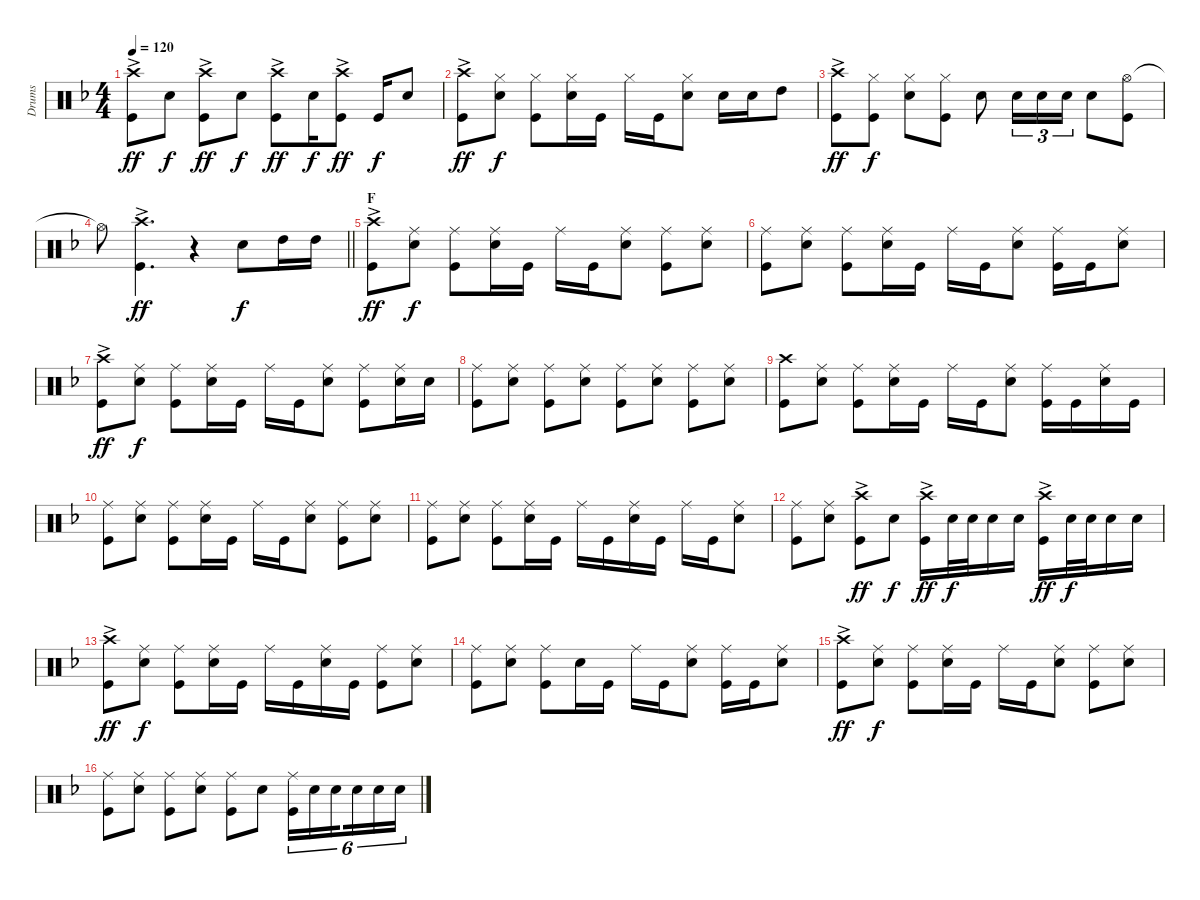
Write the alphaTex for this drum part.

\track ("Drums" "Drums") {instrument percussion}
\staff {score}
\articulation defaults
\ts (4 4)
\tempo 120
\clef neutral
\ks f
("Crash high (hit)"{ac} "Kick (hit)").8{dy ff} "Snare (hit) 2".8{dy f} ("Crash high (hit)"{ac} "Kick (hit)").8{dy ff} "Snare (hit) 2".8{dy f} ("Crash high (hit)"{ac} "Kick (hit)").8{dy ff} "Snare (hit) 2".16{dy f} ("Crash high (hit)"{ac} "Kick (hit)").8{dy ff} "Kick (hit)".16{dy f} "Snare (hit) 2".8 |
("Crash high (hit)"{ac} "Kick (hit)").8{dy ff} ("Hi-Hat (closed)" "Snare (hit) 2").8{dy f} ("Hi-Hat (closed)" "Kick (hit)").8 ("Hi-Hat (closed)" "Snare (hit) 2").16 "Kick (hit)".16 "Hi-Hat (closed)".16 "Kick (hit)".16 ("Hi-Hat (closed)" "Snare (hit) 2").8 "Snare (hit) 2".16 "Snare (hit) 2".16 "High Tom (hit)".8 |
("Crash high (hit)"{ac} "Kick (hit)").8{dy ff} ("Hi-Hat (closed)" "Kick (hit)").8{dy f} ("Hi-Hat (closed)" "Snare (hit) 2").8 ("Hi-Hat (closed)" "Kick (hit)").8 "Snare (hit) 2".8 "Snare (hit) 2".16{tu (3 2)} "Snare (hit) 2".16{tu (3 2)} "Snare (hit) 2".16{tu (3 2)} "Snare (hit) 2".8 ("Hi-Hat (open)" "Kick (hit)").8 |
\barLineRight lightlight "Hi-Hat (open)"{t}.8
("Crash high (hit)"{ac} "Kick (hit)").4{d dy ff} r.4 "Snare (hit) 2".8{dy f} "High Tom (hit)".16 "High Tom (hit)".16 |
\section ("" "F")
("Crash high (hit)"{ac} "Kick (hit)").8{dy ff} ("Ride (middle)" "Snare (hit) 2").8{dy f} ("Ride (middle)" "Kick (hit)").8 ("Ride (middle)" "Snare (hit) 2").16 "Kick (hit)".16 "Ride (middle)".16 "Kick (hit)".16 ("Ride (middle)" "Snare (hit) 2").8 ("Ride (middle)" "Kick (hit)").8 ("Ride (middle)" "Snare (hit) 2").8 |
("Ride (middle)" "Kick (hit)").8 ("Ride (middle)" "Snare (hit) 2").8 ("Ride (middle)" "Kick (hit)").8 ("Ride (middle)" "Snare (hit) 2").16 "Kick (hit)".16 "Ride (middle)".16 "Kick (hit)".16 ("Ride (middle)" "Snare (hit) 2").8 ("Ride (middle)" "Kick (hit)").16 "Kick (hit)".16 ("Ride (middle)" "Snare (hit) 2").8 |
("Crash high (hit)"{ac} "Kick (hit)").8{dy ff} ("Ride (middle)" "Snare (hit) 2").8{dy f} ("Ride (middle)" "Kick (hit)").8 ("Ride (middle)" "Snare (hit) 2").16 "Kick (hit)".16 "Ride (middle)".16 "Kick (hit)".16 ("Ride (middle)" "Snare (hit) 2").8 ("Ride (middle)" "Kick (hit)").8 ("Ride (middle)" "Snare (hit) 2").16 "Snare (hit) 2".16 |
("Ride (middle)" "Kick (hit)").8 ("Ride (middle)" "Snare (hit) 2").8 ("Ride (middle)" "Kick (hit)").8 ("Ride (middle)" "Snare (hit) 2").8 ("Ride (middle)" "Kick (hit)").8 ("Ride (middle)" "Snare (hit) 2").8 ("Ride (middle)" "Kick (hit)").8 ("Ride (middle)" "Snare (hit) 2").8 |
("Crash high (hit)" "Kick (hit)").8 ("Ride (middle)" "Snare (hit) 2").8 ("Ride (middle)" "Kick (hit)").8 ("Ride (middle)" "Snare (hit) 2").16 "Kick (hit)".16 "Ride (middle)".16 "Kick (hit)".16 ("Ride (middle)" "Snare (hit) 2").8 ("Ride (middle)" "Kick (hit)").16 "Kick (hit)".16 ("Ride (middle)" "Snare (hit) 2").16 "Kick (hit)".16 |
("Ride (middle)" "Kick (hit)").8 ("Ride (middle)" "Snare (hit) 2").8 ("Ride (middle)" "Kick (hit)").8 ("Ride (middle)" "Snare (hit) 2").16 "Kick (hit)".16 "Ride (middle)".16 "Kick (hit)".16 ("Ride (middle)" "Snare (hit) 2").8 ("Ride (middle)" "Kick (hit)").8 ("Ride (middle)" "Snare (hit) 2").8 |
("Ride (middle)" "Kick (hit)").8 ("Ride (middle)" "Snare (hit) 2").8 ("Ride (middle)" "Kick (hit)").8 ("Ride (middle)" "Snare (hit) 2").16 "Kick (hit)".16 "Ride (middle)".16 "Kick (hit)".16 ("Ride (middle)" "Snare (hit) 2").16 "Kick (hit)".16 "Ride (middle)".16 "Kick (hit)".16 ("Ride (middle)" "Snare (hit) 2").8 |
("Ride (middle)" "Kick (hit)").8 ("Ride (middle)" "Snare (hit) 2").8 ("Crash high (hit)"{ac} "Kick (hit)").8{dy ff} "Snare (hit) 2".8{dy f} ("Crash high (hit)"{ac} "Kick (hit)").16{dy ff} "Snare (hit) 2".32{dy f} "Snare (hit) 2".32 "Snare (hit) 2".16 "Snare (hit) 2".16 ("Crash high (hit)"{ac} "Kick (hit)").16{dy ff} "Snare (hit) 2".32{dy f} "Snare (hit) 2".32 "Snare (hit) 2".16 "Snare (hit) 2".16 |
("Crash high (hit)"{ac} "Kick (hit)").8{dy ff} ("Ride (middle)" "Snare (hit) 2").8{dy f} ("Ride (middle)" "Kick (hit)").8 ("Ride (middle)" "Snare (hit) 2").16 "Kick (hit)".16 "Ride (middle)".16 "Kick (hit)".16 ("Ride (middle)" "Snare (hit) 2").16 "Kick (hit)".16 ("Ride (middle)" "Kick (hit)").8 ("Ride (middle)" "Snare (hit) 2").8 |
("Ride (middle)" "Kick (hit)").8 ("Ride (middle)" "Snare (hit) 2").8 ("Ride (middle)" "Kick (hit)").8 "Snare (hit) 2".16 "Kick (hit)".16 "Ride (middle)".16 "Kick (hit)".16 ("Ride (middle)" "Snare (hit) 2").8 ("Ride (middle)" "Kick (hit)").16 "Kick (hit)".16 ("Ride (middle)" "Snare (hit) 2").8 |
("Crash high (hit)"{ac} "Kick (hit)").8{dy ff} ("Ride (middle)" "Snare (hit) 2").8{dy f} ("Ride (middle)" "Kick (hit)").8 ("Ride (middle)" "Snare (hit) 2").16 "Kick (hit)".16 "Ride (middle)".16 "Kick (hit)".16 ("Ride (middle)" "Snare (hit) 2").8 ("Ride (middle)" "Kick (hit)").8 ("Ride (middle)" "Snare (hit) 2").8 |
("Ride (middle)" "Kick (hit)").8 ("Ride (middle)" "Snare (hit) 2").8 ("Ride (middle)" "Kick (hit)").8 ("Ride (middle)" "Snare (hit) 2").8 ("Ride (middle)" "Kick (hit)").8 "Snare (hit) 2".8 ("Ride (middle)" "Kick (hit)").16{tu (6 4)} "Snare (hit) 2".16{tu (6 4)} "Snare (hit) 2".16{tu (6 4) beam splitsecondary} "Snare (hit) 2".16{tu (6 4)} "Snare (hit) 2".16{tu (6 4)} "Snare (hit) 2".16{tu (6 4)}
